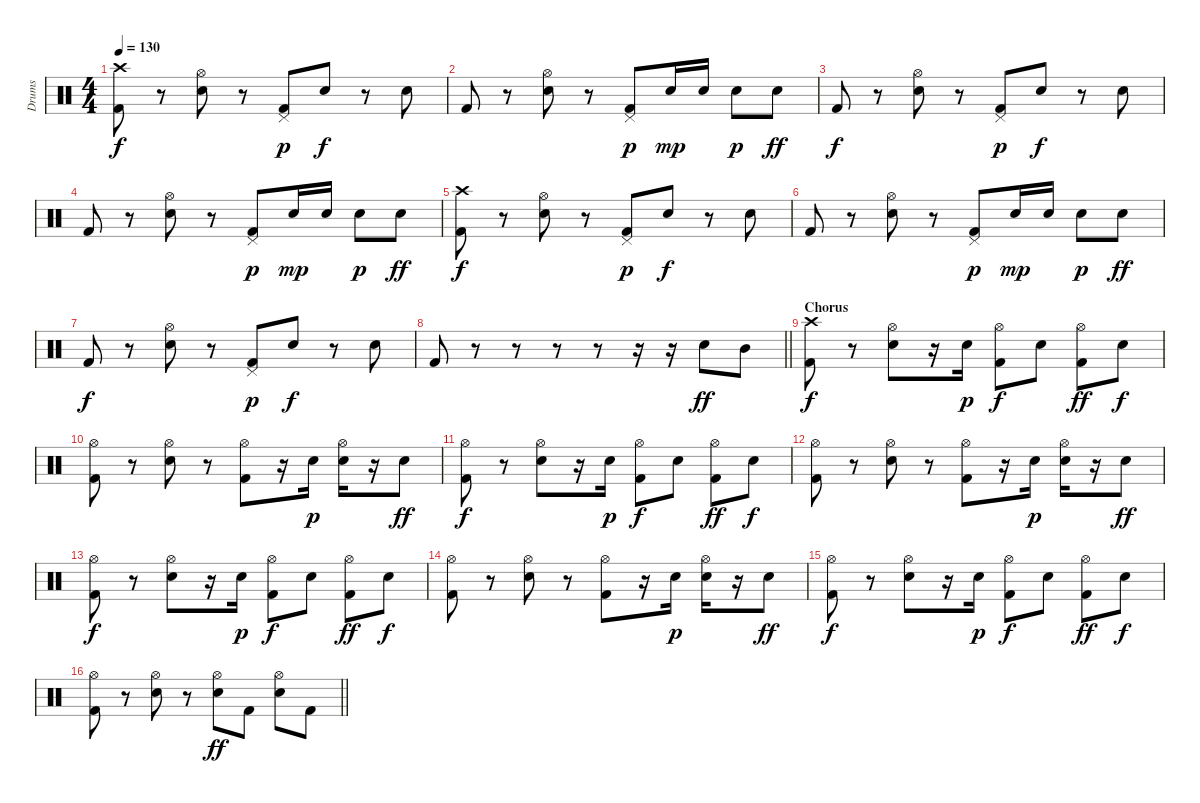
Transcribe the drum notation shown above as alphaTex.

\track ("Drums" "Drums") {instrument percussion}
\staff {score}
\articulation defaults
\ts (4 4)
\tempo 130
\clef neutral
\ks c
("Crash high (hit)" "Kick (hit) 2").8{dy f} r.8 ("Hi-Hat (open)" "Snare (hit) 2").8 r.8 ("Pedal Hi-Hat (hit)" "Kick (hit) 2").8{dy p} "Snare (hit) 2".8{dy f} r.8 "Snare (hit) 2".8 |
"Kick (hit) 2".8 r.8 ("Hi-Hat (open)" "Snare (hit) 2").8 r.8 ("Pedal Hi-Hat (hit)" "Kick (hit) 2").8{dy p} "Snare (hit) 2".16{dy mp} "Snare (hit) 2".16 "Snare (hit) 2".8{dy p} "Snare (hit) 2".8{dy ff} |
"Kick (hit) 2".8{dy f} r.8 ("Hi-Hat (open)" "Snare (hit) 2").8 r.8 ("Pedal Hi-Hat (hit)" "Kick (hit) 2").8{dy p} "Snare (hit) 2".8{dy f} r.8 "Snare (hit) 2".8 |
"Kick (hit) 2".8 r.8 ("Hi-Hat (open)" "Snare (hit) 2").8 r.8 ("Pedal Hi-Hat (hit)" "Kick (hit) 2").8{dy p} "Snare (hit) 2".16{dy mp} "Snare (hit) 2".16 "Snare (hit) 2".8{dy p} "Snare (hit) 2".8{dy ff} |
("Crash high (hit)" "Kick (hit) 2").8{dy f} r.8 ("Hi-Hat (open)" "Snare (hit) 2").8 r.8 ("Pedal Hi-Hat (hit)" "Kick (hit) 2").8{dy p} "Snare (hit) 2".8{dy f} r.8 "Snare (hit) 2".8 |
"Kick (hit) 2".8 r.8 ("Hi-Hat (open)" "Snare (hit) 2").8 r.8 ("Pedal Hi-Hat (hit)" "Kick (hit) 2").8{dy p} "Snare (hit) 2".16{dy mp} "Snare (hit) 2".16 "Snare (hit) 2".8{dy p} "Snare (hit) 2".8{dy ff} |
"Kick (hit) 2".8{dy f} r.8 ("Hi-Hat (open)" "Snare (hit) 2").8 r.8 ("Pedal Hi-Hat (hit)" "Kick (hit) 2").8{dy p} "Snare (hit) 2".8{dy f} r.8 "Snare (hit) 2".8 |
\barLineRight lightlight "Kick (hit) 2".8
r.8 r.8 r.8 r.8 r.16 r.16 "Snare (hit) 2".8{dy ff} "Mid Tom (hit)".8 |
\section ("" "Chorus")
("Crash high (hit)" "Kick (hit) 2").8{dy f} r.8 ("Hi-Hat (open)" "Snare (hit) 2").8 r.16 "Snare (hit) 2".16{dy p} ("Hi-Hat (open)" "Kick (hit) 2").8{dy f} "Snare (hit) 2".8 ("Hi-Hat (open)" "Kick (hit) 2").8{dy ff} "Snare (hit) 2".8{dy f} |
("Hi-Hat (open)" "Kick (hit) 2").8 r.8 ("Hi-Hat (open)" "Snare (hit) 2").8 r.8 ("Hi-Hat (open)" "Kick (hit) 2").8 r.16 "Snare (hit) 2".16{dy p} ("Hi-Hat (open)" "Snare (hit) 2").16 r.16 "Snare (hit) 2".8{dy ff} |
("Hi-Hat (open)" "Kick (hit) 2").8{dy f} r.8 ("Hi-Hat (open)" "Snare (hit) 2").8 r.16 "Snare (hit) 2".16{dy p} ("Hi-Hat (open)" "Kick (hit) 2").8{dy f} "Snare (hit) 2".8 ("Hi-Hat (open)" "Kick (hit) 2").8{dy ff} "Snare (hit) 2".8{dy f} |
("Hi-Hat (open)" "Kick (hit) 2").8 r.8 ("Hi-Hat (open)" "Snare (hit) 2").8 r.8 ("Hi-Hat (open)" "Kick (hit) 2").8 r.16 "Snare (hit) 2".16{dy p} ("Hi-Hat (open)" "Snare (hit) 2").16 r.16 "Snare (hit) 2".8{dy ff} |
("Hi-Hat (open)" "Kick (hit) 2").8{dy f} r.8 ("Hi-Hat (open)" "Snare (hit) 2").8 r.16 "Snare (hit) 2".16{dy p} ("Hi-Hat (open)" "Kick (hit) 2").8{dy f} "Snare (hit) 2".8 ("Hi-Hat (open)" "Kick (hit) 2").8{dy ff} "Snare (hit) 2".8{dy f} |
("Hi-Hat (open)" "Kick (hit) 2").8 r.8 ("Hi-Hat (open)" "Snare (hit) 2").8 r.8 ("Hi-Hat (open)" "Kick (hit) 2").8 r.16 "Snare (hit) 2".16{dy p} ("Hi-Hat (open)" "Snare (hit) 2").16 r.16 "Snare (hit) 2".8{dy ff} |
("Hi-Hat (open)" "Kick (hit) 2").8{dy f} r.8 ("Hi-Hat (open)" "Snare (hit) 2").8 r.16 "Snare (hit) 2".16{dy p} ("Hi-Hat (open)" "Kick (hit) 2").8{dy f} "Snare (hit) 2".8 ("Hi-Hat (open)" "Kick (hit) 2").8{dy ff} "Snare (hit) 2".8{dy f} |
\barLineRight lightlight
("Hi-Hat (open)" "Kick (hit) 2").8 r.8 ("Hi-Hat (open)" "Snare (hit) 2").8 r.8 ("Hi-Hat (open)" "Snare (hit) 2").8{dy ff} "Kick (hit) 2".8 ("Hi-Hat (open)" "Snare (hit) 2").8 "Kick (hit) 2".8
